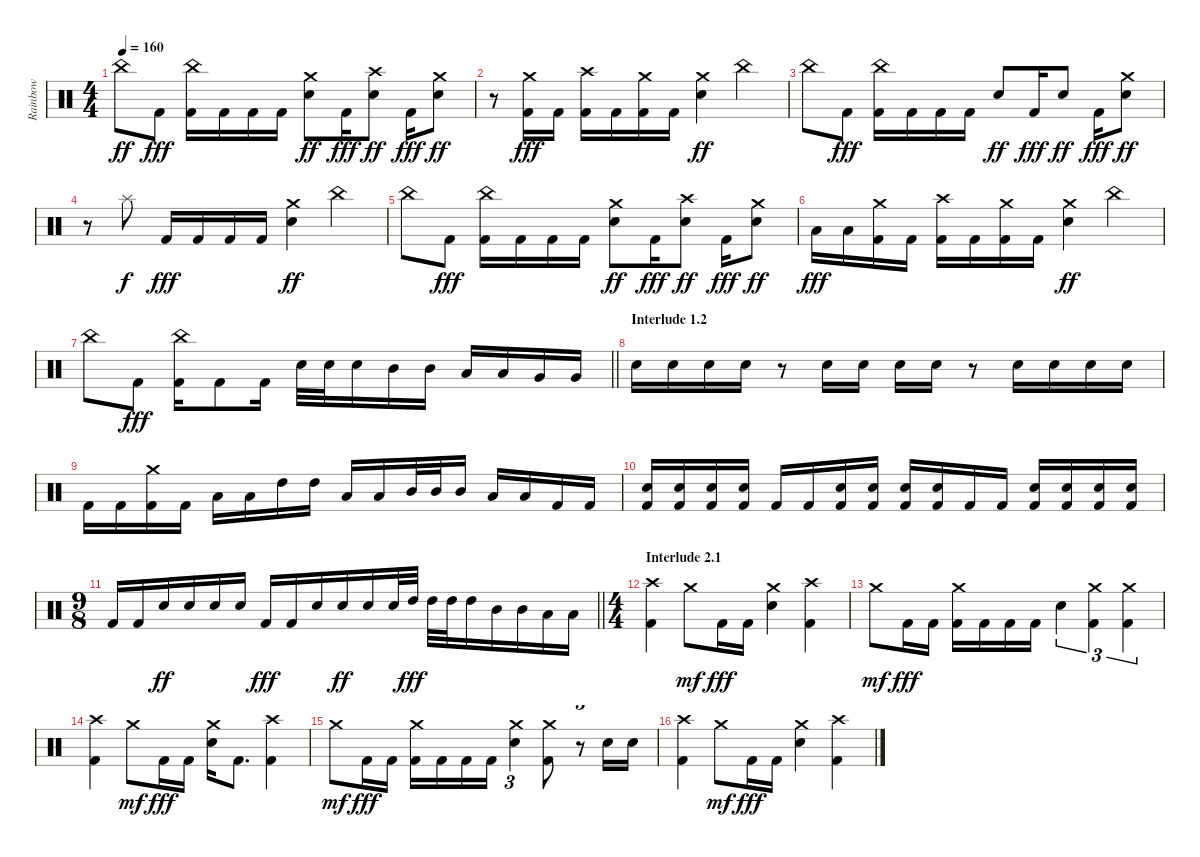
\track ("Rainbow" "Rainbow") {instrument percussion}
\staff {score}
\articulation defaults
\ts (4 4)
\tempo 160
\clef neutral
\ks c "China (hit)".8{dy ff} "Kick (hit) 2".8{dy fff}
("China (hit)" "Kick (hit) 2").16 "Kick (hit) 2".16 "Kick (hit) 2".16 "Kick (hit) 2".16 ("Crash medium (hit)" "Electric Snare (hit)").8{dy ff} "Kick (hit) 2".16{dy fff} ("Crash high (hit)" "Electric Snare (hit)").8{dy ff} "Kick (hit) 2".16{dy fff} ("Crash medium (hit)" "Electric Snare (hit)").8{dy ff} |
r.8 ("Crash medium (hit)" "Kick (hit) 2").16{dy fff} "Kick (hit) 2".16 ("Crash high (hit)" "Kick (hit) 2").16 "Kick (hit) 2".16 ("Crash medium (hit)" "Kick (hit) 2").16 "Kick (hit) 2".16 ("Crash medium (hit)" "Electric Snare (hit)").4{dy ff} "China (hit)".4 |
"China (hit)".8 "Kick (hit) 2".8{dy fff} ("China (hit)" "Kick (hit) 2").16 "Kick (hit) 2".16 "Kick (hit) 2".16 "Kick (hit) 2".16 "Electric Snare (hit)".8{dy ff} "Kick (hit) 2".16{dy fff} "Electric Snare (hit)".8{dy ff} "Kick (hit) 2".16{dy fff} ("Crash medium (hit)" "Electric Snare (hit)").8{dy ff} |
r.8 "Splash (hit)".8{dy f} "Kick (hit) 2".16{dy fff} "Kick (hit) 2".16 "Kick (hit) 2".16 "Kick (hit) 2".16 ("Crash medium (hit)" "Electric Snare (hit)").4{dy ff} "China (hit)".4 |
"China (hit)".8 "Kick (hit) 2".8{dy fff} ("China (hit)" "Kick (hit) 2").16 "Kick (hit) 2".16 "Kick (hit) 2".16 "Kick (hit) 2".16 ("Crash medium (hit)" "Electric Snare (hit)").8{dy ff} "Kick (hit) 2".16{dy fff} ("Crash high (hit)" "Electric Snare (hit)").8{dy ff} "Kick (hit) 2".16{dy fff} ("Crash medium (hit)" "Electric Snare (hit)").8{dy ff} |
"Low Tom (hit)".16{dy fff} "Low Tom (hit)".16 ("Crash medium (hit)" "Kick (hit) 2").16 "Kick (hit) 2".16 ("Crash high (hit)" "Kick (hit) 2").16 "Kick (hit) 2".16 ("Crash medium (hit)" "Kick (hit) 2").16 "Kick (hit) 2".16 ("Crash medium (hit)" "Electric Snare (hit)").4{dy ff} "China (hit)".4 |
\barLineRight lightlight "China (hit)".8 "Kick (hit) 2".8{dy fff}
("China (hit)" "Kick (hit) 2").16 "Kick (hit) 2".8 "Kick (hit) 2".16 "Electric Snare (hit)".32 "Electric Snare (hit)".32 "Electric Snare (hit)".16 "Mid Tom (hit)".16 "Mid Tom (hit)".16 "Low Tom (hit)".16 "Low Tom (hit)".16 "Very Low Tom (hit)".16 "Very Low Tom (hit)".16 |
\section ("" "Interlude 1.2")
"Electric Snare (hit)".16 "Electric Snare (hit)".16 "Electric Snare (hit)".16 "Electric Snare (hit)".16 r.8 "Electric Snare (hit)".16 "Electric Snare (hit)".16 "Electric Snare (hit)".16 "Electric Snare (hit)".16 r.8 "Electric Snare (hit)".16 "Electric Snare (hit)".16 "Electric Snare (hit)".16 "Electric Snare (hit)".16 |
"Kick (hit) 2".16 "Kick (hit) 2".16 ("Crash medium (hit)" "Kick (hit) 2").16 "Kick (hit) 2".16 "Low Tom (hit)".16 "Low Tom (hit)".16 "High Tom (hit)".16 "High Tom (hit)".16 "Low Tom (hit)".16 "Low Tom (hit)".16 "Mid Tom (hit)".32 "Mid Tom (hit)".32 "Mid Tom (hit)".16 "Low Tom (hit)".16 "Low Tom (hit)".16 "Kick (hit) 2".16 "Kick (hit) 2".16 |
("Electric Snare (hit)" "Kick (hit) 2").16 ("Electric Snare (hit)" "Kick (hit) 2").16 ("Electric Snare (hit)" "Kick (hit) 2").16 ("Electric Snare (hit)" "Kick (hit) 2").16 "Kick (hit) 2".16 "Kick (hit) 2".16 ("Electric Snare (hit)" "Kick (hit) 2").16 ("Electric Snare (hit)" "Kick (hit) 2").16 ("Electric Snare (hit)" "Kick (hit) 2").16 ("Electric Snare (hit)" "Kick (hit) 2").16 "Kick (hit) 2".16 "Kick (hit) 2".16 ("Electric Snare (hit)" "Kick (hit) 2").16 ("Electric Snare (hit)" "Kick (hit) 2").16 ("Electric Snare (hit)" "Kick (hit) 2").16 ("Electric Snare (hit)" "Kick (hit) 2").16 |
\ts (9 8)
\barLineRight lightlight "Kick (hit) 2".16 "Kick (hit) 2".16 "Electric Snare (hit)".16{dy ff} "Electric Snare (hit)".16 "Electric Snare (hit)".16 "Electric Snare (hit)".16 "Kick (hit) 2".16{dy fff} "Kick (hit) 2".16 "Electric Snare (hit)".16 "Electric Snare (hit)".16{dy ff} "Electric Snare (hit)".16 "Electric Snare (hit)".32 "High Tom (hit)".32{dy fff} "High Tom (hit)".32 "High Tom (hit)".32 "High Tom (hit)".16 "Mid Tom (hit)".16 "Mid Tom (hit)".16 "Low Tom (hit)".16 "Low Tom (hit)".16
|
\ts (4 4)
\section ("" "Interlude 2.1")
("Crash high (hit)" "Kick (hit) 2").4 "Crash medium (hit)".8{dy mf} "Kick (hit) 2".16{dy fff} "Kick (hit) 2".16 ("Crash medium (hit)" "Electric Snare (hit)").4 ("Crash high (hit)" "Kick (hit) 2").4 |
"Crash medium (hit)".8{dy mf} "Kick (hit) 2".16{dy fff} "Kick (hit) 2".16 ("Crash medium (hit)" "Kick (hit) 2").16 "Kick (hit) 2".16 "Kick (hit) 2".16 "Kick (hit) 2".16 "Electric Snare (hit)".4{tu (3 2)} ("Crash medium (hit)" "Kick (hit) 2").4{tu (3 2)} ("Crash medium (hit)" "Kick (hit) 2").4{tu (3 2)} |
("Crash high (hit)" "Kick (hit) 2").4 "Crash medium (hit)".8{dy mf} "Kick (hit) 2".16{dy fff} "Kick (hit) 2".16 ("Crash medium (hit)" "Electric Snare (hit)").16 "Kick (hit) 2".8{d} ("Crash high (hit)" "Kick (hit) 2").4 |
"Crash medium (hit)".8{dy mf} "Kick (hit) 2".16{dy fff} "Kick (hit) 2".16 ("Crash medium (hit)" "Kick (hit) 2").16 "Kick (hit) 2".16 "Kick (hit) 2".16 "Kick (hit) 2".16 ("Crash medium (hit)" "Electric Snare (hit)").4{tu (3 2)} ("Crash medium (hit)" "Kick (hit) 2").8 r.8{tu (3 2)} "Electric Snare (hit)".16 "Electric Snare (hit)".16 |
("Crash high (hit)" "Kick (hit) 2").4 "Crash medium (hit)".8{dy mf} "Kick (hit) 2".16{dy fff} "Kick (hit) 2".16 ("Crash medium (hit)" "Electric Snare (hit)").4 ("Crash high (hit)" "Kick (hit) 2").4
